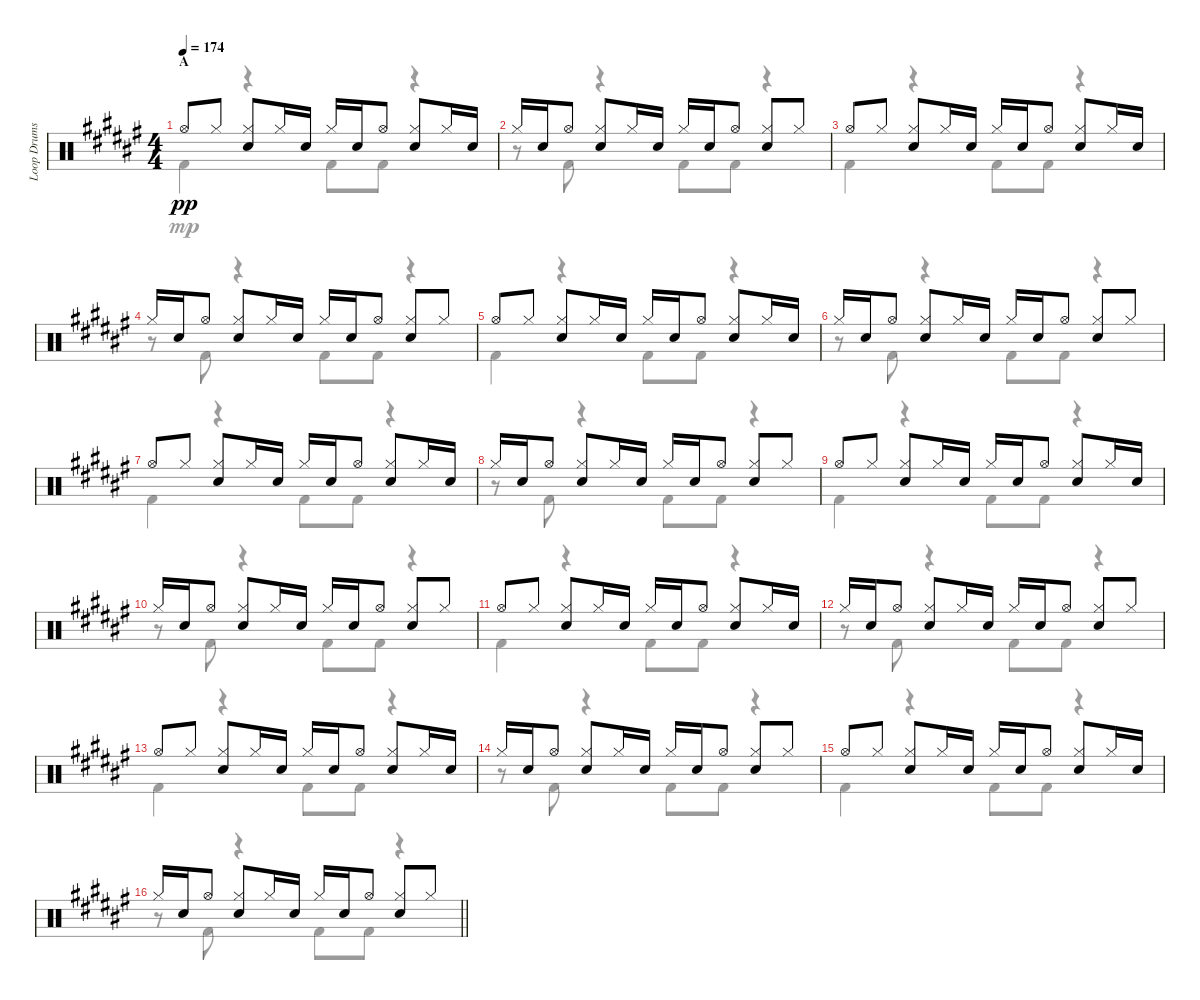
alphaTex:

\track ("Loop Drums" "Loop Drums") {instrument percussion}
\staff {score}
\articulation defaults
\voice
\ts (4 4)
\section ("" "A")
\tempo 174
\clef neutral
\ks f# "Hi-Hat (open)".8{dy pp} "Hi-Hat (closed)".8
("Hi-Hat (closed)" "Electric Snare (hit)").8 "Hi-Hat (closed)".16 "Electric Snare (hit)".16 "Hi-Hat (closed)".16 "Electric Snare (hit)".16 "Hi-Hat (open)".8 ("Hi-Hat (closed)" "Electric Snare (hit)").8 "Hi-Hat (closed)".16 "Electric Snare (hit)".16 |
"Hi-Hat (closed)".16 "Electric Snare (hit)".16 "Hi-Hat (open)".8 ("Hi-Hat (closed)" "Electric Snare (hit)").8 "Hi-Hat (closed)".16 "Electric Snare (hit)".16 "Hi-Hat (closed)".16 "Electric Snare (hit)".16 "Hi-Hat (open)".8 ("Hi-Hat (closed)" "Electric Snare (hit)").8 "Hi-Hat (closed)".8 |
"Hi-Hat (open)".8 "Hi-Hat (closed)".8 ("Hi-Hat (closed)" "Electric Snare (hit)").8 "Hi-Hat (closed)".16 "Electric Snare (hit)".16 "Hi-Hat (closed)".16 "Electric Snare (hit)".16 "Hi-Hat (open)".8 ("Hi-Hat (closed)" "Electric Snare (hit)").8 "Hi-Hat (closed)".16 "Electric Snare (hit)".16 |
"Hi-Hat (closed)".16 "Electric Snare (hit)".16 "Hi-Hat (open)".8 ("Hi-Hat (closed)" "Electric Snare (hit)").8 "Hi-Hat (closed)".16 "Electric Snare (hit)".16 "Hi-Hat (closed)".16 "Electric Snare (hit)".16 "Hi-Hat (open)".8 ("Hi-Hat (closed)" "Electric Snare (hit)").8 "Hi-Hat (closed)".8 |
"Hi-Hat (open)".8 "Hi-Hat (closed)".8 ("Hi-Hat (closed)" "Electric Snare (hit)").8 "Hi-Hat (closed)".16 "Electric Snare (hit)".16 "Hi-Hat (closed)".16 "Electric Snare (hit)".16 "Hi-Hat (open)".8 ("Hi-Hat (closed)" "Electric Snare (hit)").8 "Hi-Hat (closed)".16 "Electric Snare (hit)".16 |
"Hi-Hat (closed)".16 "Electric Snare (hit)".16 "Hi-Hat (open)".8 ("Hi-Hat (closed)" "Electric Snare (hit)").8 "Hi-Hat (closed)".16 "Electric Snare (hit)".16 "Hi-Hat (closed)".16 "Electric Snare (hit)".16 "Hi-Hat (open)".8 ("Hi-Hat (closed)" "Electric Snare (hit)").8 "Hi-Hat (closed)".8 |
"Hi-Hat (open)".8 "Hi-Hat (closed)".8 ("Hi-Hat (closed)" "Electric Snare (hit)").8 "Hi-Hat (closed)".16 "Electric Snare (hit)".16 "Hi-Hat (closed)".16 "Electric Snare (hit)".16 "Hi-Hat (open)".8 ("Hi-Hat (closed)" "Electric Snare (hit)").8 "Hi-Hat (closed)".16 "Electric Snare (hit)".16 |
"Hi-Hat (closed)".16 "Electric Snare (hit)".16 "Hi-Hat (open)".8 ("Hi-Hat (closed)" "Electric Snare (hit)").8 "Hi-Hat (closed)".16 "Electric Snare (hit)".16 "Hi-Hat (closed)".16 "Electric Snare (hit)".16 "Hi-Hat (open)".8 ("Hi-Hat (closed)" "Electric Snare (hit)").8 "Hi-Hat (closed)".8 |
"Hi-Hat (open)".8 "Hi-Hat (closed)".8 ("Hi-Hat (closed)" "Electric Snare (hit)").8 "Hi-Hat (closed)".16 "Electric Snare (hit)".16 "Hi-Hat (closed)".16 "Electric Snare (hit)".16 "Hi-Hat (open)".8 ("Hi-Hat (closed)" "Electric Snare (hit)").8 "Hi-Hat (closed)".16 "Electric Snare (hit)".16 |
"Hi-Hat (closed)".16 "Electric Snare (hit)".16 "Hi-Hat (open)".8 ("Hi-Hat (closed)" "Electric Snare (hit)").8 "Hi-Hat (closed)".16 "Electric Snare (hit)".16 "Hi-Hat (closed)".16 "Electric Snare (hit)".16 "Hi-Hat (open)".8 ("Hi-Hat (closed)" "Electric Snare (hit)").8 "Hi-Hat (closed)".8 |
"Hi-Hat (open)".8 "Hi-Hat (closed)".8 ("Hi-Hat (closed)" "Electric Snare (hit)").8 "Hi-Hat (closed)".16 "Electric Snare (hit)".16 "Hi-Hat (closed)".16 "Electric Snare (hit)".16 "Hi-Hat (open)".8 ("Hi-Hat (closed)" "Electric Snare (hit)").8 "Hi-Hat (closed)".16 "Electric Snare (hit)".16 |
"Hi-Hat (closed)".16 "Electric Snare (hit)".16 "Hi-Hat (open)".8 ("Hi-Hat (closed)" "Electric Snare (hit)").8 "Hi-Hat (closed)".16 "Electric Snare (hit)".16 "Hi-Hat (closed)".16 "Electric Snare (hit)".16 "Hi-Hat (open)".8 ("Hi-Hat (closed)" "Electric Snare (hit)").8 "Hi-Hat (closed)".8 |
"Hi-Hat (open)".8 "Hi-Hat (closed)".8 ("Hi-Hat (closed)" "Electric Snare (hit)").8 "Hi-Hat (closed)".16 "Electric Snare (hit)".16 "Hi-Hat (closed)".16 "Electric Snare (hit)".16 "Hi-Hat (open)".8 ("Hi-Hat (closed)" "Electric Snare (hit)").8 "Hi-Hat (closed)".16 "Electric Snare (hit)".16 |
"Hi-Hat (closed)".16 "Electric Snare (hit)".16 "Hi-Hat (open)".8 ("Hi-Hat (closed)" "Electric Snare (hit)").8 "Hi-Hat (closed)".16 "Electric Snare (hit)".16 "Hi-Hat (closed)".16 "Electric Snare (hit)".16 "Hi-Hat (open)".8 ("Hi-Hat (closed)" "Electric Snare (hit)").8 "Hi-Hat (closed)".8 |
"Hi-Hat (open)".8 "Hi-Hat (closed)".8 ("Hi-Hat (closed)" "Electric Snare (hit)").8 "Hi-Hat (closed)".16 "Electric Snare (hit)".16 "Hi-Hat (closed)".16 "Electric Snare (hit)".16 "Hi-Hat (open)".8 ("Hi-Hat (closed)" "Electric Snare (hit)").8 "Hi-Hat (closed)".16 "Electric Snare (hit)".16 |
\barLineRight lightlight "Hi-Hat (closed)".16 "Electric Snare (hit)".16 "Hi-Hat (open)".8
("Hi-Hat (closed)" "Electric Snare (hit)").8 "Hi-Hat (closed)".16 "Electric Snare (hit)".16 "Hi-Hat (closed)".16 "Electric Snare (hit)".16 "Hi-Hat (open)".8 ("Hi-Hat (closed)" "Electric Snare (hit)").8 "Hi-Hat (closed)".8
\voice
\clef neutral
\ottava regular
\simile none
\ks f# "Kick (hit) 2".4{dy mp}
r.4 "Kick (hit) 2".8 "Kick (hit) 2".8 r.4 |
r.8 "Kick (hit) 2".8 r.4 "Kick (hit) 2".8 "Kick (hit) 2".8 r.4 |
"Kick (hit) 2".4 r.4 "Kick (hit) 2".8 "Kick (hit) 2".8 r.4 |
r.8 "Kick (hit) 2".8 r.4 "Kick (hit) 2".8 "Kick (hit) 2".8 r.4 |
"Kick (hit) 2".4 r.4 "Kick (hit) 2".8 "Kick (hit) 2".8 r.4 |
r.8 "Kick (hit) 2".8 r.4 "Kick (hit) 2".8 "Kick (hit) 2".8 r.4 |
"Kick (hit) 2".4 r.4 "Kick (hit) 2".8 "Kick (hit) 2".8 r.4 |
r.8 "Kick (hit) 2".8 r.4 "Kick (hit) 2".8 "Kick (hit) 2".8 r.4 |
"Kick (hit) 2".4 r.4 "Kick (hit) 2".8 "Kick (hit) 2".8 r.4 |
r.8 "Kick (hit) 2".8 r.4 "Kick (hit) 2".8 "Kick (hit) 2".8 r.4 |
"Kick (hit) 2".4 r.4 "Kick (hit) 2".8 "Kick (hit) 2".8 r.4 |
r.8 "Kick (hit) 2".8 r.4 "Kick (hit) 2".8 "Kick (hit) 2".8 r.4 |
"Kick (hit) 2".4 r.4 "Kick (hit) 2".8 "Kick (hit) 2".8 r.4 |
r.8 "Kick (hit) 2".8 r.4 "Kick (hit) 2".8 "Kick (hit) 2".8 r.4 |
"Kick (hit) 2".4 r.4 "Kick (hit) 2".8 "Kick (hit) 2".8 r.4 |
\barLineRight lightlight
r.8 "Kick (hit) 2".8 r.4 "Kick (hit) 2".8 "Kick (hit) 2".8 r.4
